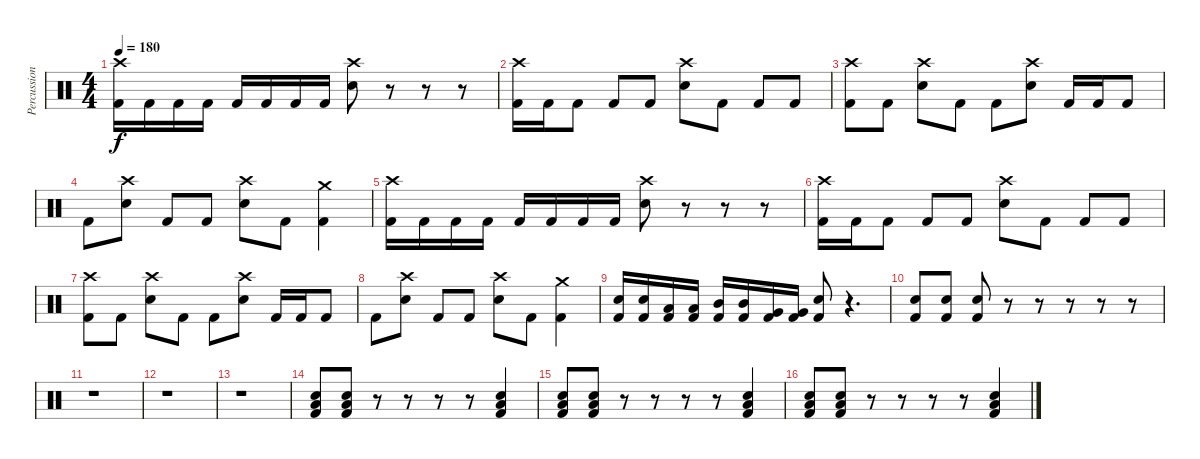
\track ("Percussion" "Percussion") {instrument percussion}
\staff {score}
\articulation defaults
\ts (4 4)
\tempo 180
\clef neutral
\ks c
("Crash high (hit)" "Kick (hit) 2").16{dy f} "Kick (hit) 2".16 "Kick (hit) 2".16 "Kick (hit) 2".16 "Kick (hit) 2".16 "Kick (hit) 2".16 "Kick (hit) 2".16 "Kick (hit) 2".16 ("Crash high (hit)" "Electric Snare (hit)").8 r.8 r.8 r.8 |
("Crash high (hit)" "Kick (hit) 2").16 "Kick (hit) 2".16 "Kick (hit) 2".8 "Kick (hit) 2".8 "Kick (hit) 2".8 ("Crash high (hit)" "Electric Snare (hit)").8 "Kick (hit) 2".8 "Kick (hit) 2".8 "Kick (hit) 2".8 |
("Crash high (hit)" "Kick (hit) 2").8 "Kick (hit) 2".8 ("Crash high (hit)" "Electric Snare (hit)").8 "Kick (hit) 2".8 "Kick (hit) 2".8 ("Crash high (hit)" "Electric Snare (hit)").8 "Kick (hit) 2".16 "Kick (hit) 2".16 "Kick (hit) 2".8 |
"Kick (hit) 2".8 ("Crash high (hit)" "Electric Snare (hit)").8 "Kick (hit) 2".8 "Kick (hit) 2".8 ("Crash high (hit)" "Electric Snare (hit)").8 "Kick (hit) 2".8 ("Crash medium (hit)" "Kick (hit) 2").4 |
("Crash high (hit)" "Kick (hit) 2").16 "Kick (hit) 2".16 "Kick (hit) 2".16 "Kick (hit) 2".16 "Kick (hit) 2".16 "Kick (hit) 2".16 "Kick (hit) 2".16 "Kick (hit) 2".16 ("Crash high (hit)" "Electric Snare (hit)").8 r.8 r.8 r.8 |
("Crash high (hit)" "Kick (hit) 2").16 "Kick (hit) 2".16 "Kick (hit) 2".8 "Kick (hit) 2".8 "Kick (hit) 2".8 ("Crash high (hit)" "Electric Snare (hit)").8 "Kick (hit) 2".8 "Kick (hit) 2".8 "Kick (hit) 2".8 |
("Crash high (hit)" "Kick (hit) 2").8 "Kick (hit) 2".8 ("Crash high (hit)" "Electric Snare (hit)").8 "Kick (hit) 2".8 "Kick (hit) 2".8 ("Crash high (hit)" "Electric Snare (hit)").8 "Kick (hit) 2".16 "Kick (hit) 2".16 "Kick (hit) 2".8 |
"Kick (hit) 2".8 ("Crash high (hit)" "Electric Snare (hit)").8 "Kick (hit) 2".8 "Kick (hit) 2".8 ("Crash high (hit)" "Electric Snare (hit)").8 "Kick (hit) 2".8 ("Crash medium (hit)" "Kick (hit) 2").4 |
("Electric Snare (hit)" "Kick (hit) 2").16 ("Electric Snare (hit)" "Kick (hit) 2").16 ("Low Tom (hit)" "Kick (hit) 2").16 ("Low Tom (hit)" "Kick (hit) 2").16 ("Mid Tom (hit)" "Kick (hit) 2").16 ("Mid Tom (hit)" "Kick (hit) 2").16 ("Very Low Tom (hit)" "Kick (hit) 2").16 ("Very Low Tom (hit)" "Kick (hit) 2").16 ("Electric Snare (hit)" "Kick (hit) 2").8 r.4{d} |
("Electric Snare (hit)" "Kick (hit) 2").8 ("Electric Snare (hit)" "Kick (hit) 2").8 ("Electric Snare (hit)" "Kick (hit) 2").8 r.8 r.8 r.8 r.8 r.8 |
r.1 |
r.1 |
r.1 |
("Low Floor Tom (hit)" "Electric Snare (hit)" "Kick (hit) 2").8 ("Low Floor Tom (hit)" "Electric Snare (hit)" "Kick (hit) 2").8 r.8 r.8 r.8 r.8 ("Low Floor Tom (hit)" "Electric Snare (hit)" "Kick (hit) 2").4 |
("Low Floor Tom (hit)" "Electric Snare (hit)" "Kick (hit) 2").8 ("Low Floor Tom (hit)" "Electric Snare (hit)" "Kick (hit) 2").8 r.8 r.8 r.8 r.8 ("Low Floor Tom (hit)" "Electric Snare (hit)" "Kick (hit) 2").4 |
("Low Floor Tom (hit)" "Electric Snare (hit)" "Kick (hit) 2").8 ("Low Floor Tom (hit)" "Electric Snare (hit)" "Kick (hit) 2").8 r.8 r.8 r.8 r.8 ("Low Floor Tom (hit)" "Electric Snare (hit)" "Kick (hit) 2").4
